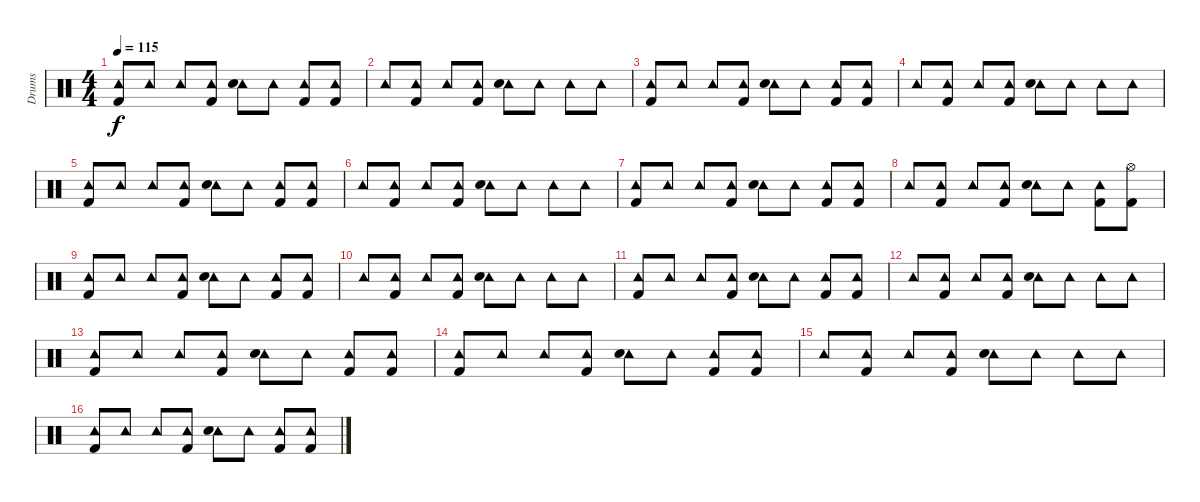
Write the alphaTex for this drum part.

\track ("Drums" "Drums") {instrument percussion}
\staff {score}
\articulation defaults
\ts (4 4)
\tempo 115
\clef neutral
\ks c
("Tambourine (hit)" "Kick (hit) 2").8{dy f} "Tambourine (hit)".8 "Tambourine (hit)".8 ("Tambourine (hit)" "Kick (hit) 2").8 ("Tambourine (hit)" "Snare (hit) 2").8 "Tambourine (hit)".8 ("Tambourine (hit)" "Kick (hit) 2").8 ("Tambourine (hit)" "Kick (hit) 2").8 |
"Tambourine (hit)".8 ("Tambourine (hit)" "Kick (hit) 2").8 "Tambourine (hit)".8 ("Tambourine (hit)" "Kick (hit) 2").8 ("Tambourine (hit)" "Snare (hit) 2").8 "Tambourine (hit)".8 "Tambourine (hit)".8 "Tambourine (hit)".8 |
("Tambourine (hit)" "Kick (hit) 2").8 "Tambourine (hit)".8 "Tambourine (hit)".8 ("Tambourine (hit)" "Kick (hit) 2").8 ("Tambourine (hit)" "Snare (hit) 2").8 "Tambourine (hit)".8 ("Tambourine (hit)" "Kick (hit) 2").8 ("Tambourine (hit)" "Kick (hit) 2").8 |
"Tambourine (hit)".8 ("Tambourine (hit)" "Kick (hit) 2").8 "Tambourine (hit)".8 ("Tambourine (hit)" "Kick (hit) 2").8 ("Tambourine (hit)" "Snare (hit) 2").8 "Tambourine (hit)".8 "Tambourine (hit)".8 "Tambourine (hit)".8 |
("Tambourine (hit)" "Kick (hit) 2").8 "Tambourine (hit)".8 "Tambourine (hit)".8 ("Tambourine (hit)" "Kick (hit) 2").8 ("Tambourine (hit)" "Snare (hit) 2").8 "Tambourine (hit)".8 ("Tambourine (hit)" "Kick (hit) 2").8 ("Tambourine (hit)" "Kick (hit) 2").8 |
"Tambourine (hit)".8 ("Tambourine (hit)" "Kick (hit) 2").8 "Tambourine (hit)".8 ("Tambourine (hit)" "Kick (hit) 2").8 ("Tambourine (hit)" "Snare (hit) 2").8 "Tambourine (hit)".8 "Tambourine (hit)".8 "Tambourine (hit)".8 |
("Tambourine (hit)" "Kick (hit) 2").8 "Tambourine (hit)".8 "Tambourine (hit)".8 ("Tambourine (hit)" "Kick (hit) 2").8 ("Tambourine (hit)" "Snare (hit) 2").8 "Tambourine (hit)".8 ("Tambourine (hit)" "Kick (hit) 2").8 ("Tambourine (hit)" "Kick (hit) 2").8 |
"Tambourine (hit)".8 ("Tambourine (hit)" "Kick (hit) 2").8 "Tambourine (hit)".8 ("Tambourine (hit)" "Kick (hit) 2").8 ("Tambourine (hit)" "Snare (hit) 2").8 "Tambourine (hit)".8 ("Tambourine (hit)" "Kick (hit) 2").8 ("Hi-Hat (open)" "Kick (hit) 2").8 |
("Tambourine (hit)" "Kick (hit) 2").8 "Tambourine (hit)".8 "Tambourine (hit)".8 ("Tambourine (hit)" "Kick (hit) 2").8 ("Tambourine (hit)" "Snare (hit) 2").8 "Tambourine (hit)".8 ("Tambourine (hit)" "Kick (hit) 2").8 ("Tambourine (hit)" "Kick (hit) 2").8 |
"Tambourine (hit)".8 ("Tambourine (hit)" "Kick (hit) 2").8 "Tambourine (hit)".8 ("Tambourine (hit)" "Kick (hit) 2").8 ("Tambourine (hit)" "Snare (hit) 2").8 "Tambourine (hit)".8 "Tambourine (hit)".8 "Tambourine (hit)".8 |
("Tambourine (hit)" "Kick (hit) 2").8 "Tambourine (hit)".8 "Tambourine (hit)".8 ("Tambourine (hit)" "Kick (hit) 2").8 ("Tambourine (hit)" "Snare (hit) 2").8 "Tambourine (hit)".8 ("Tambourine (hit)" "Kick (hit) 2").8 ("Tambourine (hit)" "Kick (hit) 2").8 |
"Tambourine (hit)".8 ("Tambourine (hit)" "Kick (hit) 2").8 "Tambourine (hit)".8 ("Tambourine (hit)" "Kick (hit) 2").8 ("Tambourine (hit)" "Snare (hit) 2").8 "Tambourine (hit)".8 "Tambourine (hit)".8 "Tambourine (hit)".8 |
("Tambourine (hit)" "Kick (hit) 2").8 "Tambourine (hit)".8 "Tambourine (hit)".8 ("Tambourine (hit)" "Kick (hit) 2").8 ("Tambourine (hit)" "Snare (hit) 2").8 "Tambourine (hit)".8 ("Tambourine (hit)" "Kick (hit) 2").8 ("Tambourine (hit)" "Kick (hit) 2").8 |
("Tambourine (hit)" "Kick (hit) 2").8 "Tambourine (hit)".8 "Tambourine (hit)".8 ("Tambourine (hit)" "Kick (hit) 2").8 ("Tambourine (hit)" "Snare (hit) 2").8 "Tambourine (hit)".8 ("Tambourine (hit)" "Kick (hit) 2").8 ("Tambourine (hit)" "Kick (hit) 2").8 |
"Tambourine (hit)".8 ("Tambourine (hit)" "Kick (hit) 2").8 "Tambourine (hit)".8 ("Tambourine (hit)" "Kick (hit) 2").8 ("Tambourine (hit)" "Snare (hit) 2").8 "Tambourine (hit)".8 "Tambourine (hit)".8 "Tambourine (hit)".8 |
("Tambourine (hit)" "Kick (hit) 2").8 "Tambourine (hit)".8 "Tambourine (hit)".8 ("Tambourine (hit)" "Kick (hit) 2").8 ("Tambourine (hit)" "Snare (hit) 2").8 "Tambourine (hit)".8 ("Tambourine (hit)" "Kick (hit) 2").8 ("Tambourine (hit)" "Kick (hit) 2").8
